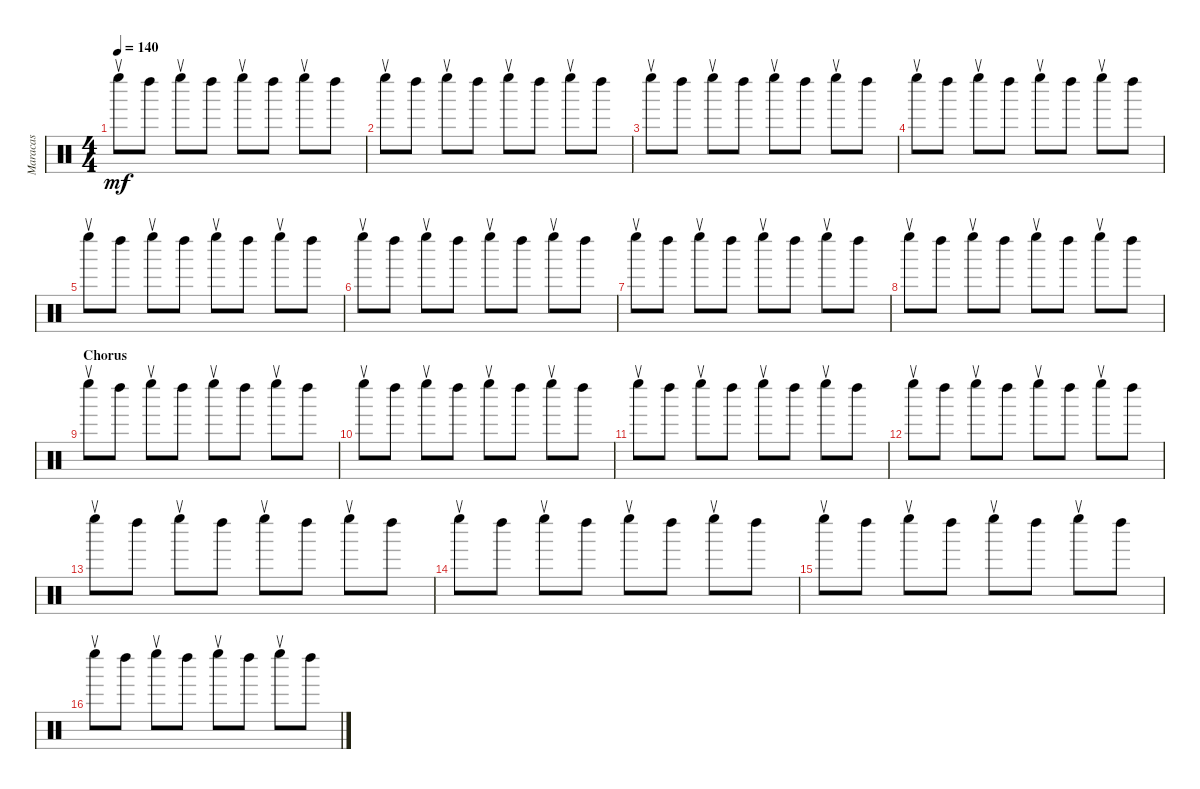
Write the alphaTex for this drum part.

\track ("Maracas" "Maracas") {instrument percussion}
\staff {score}
\articulation defaults
\ts (4 4)
\tempo 140
\clef neutral
\ks c "Left Maraca (return)".8{dy mf} "Left Maraca (hit)".8 "Left Maraca (return)".8 "Left Maraca (hit)".8 "Left Maraca (return)".8 "Left Maraca (hit)".8 "Left Maraca (return)".8 "Left Maraca (hit)".8
|
"Left Maraca (return)".8 "Left Maraca (hit)".8 "Left Maraca (return)".8 "Left Maraca (hit)".8 "Left Maraca (return)".8 "Left Maraca (hit)".8 "Left Maraca (return)".8 "Left Maraca (hit)".8 |
"Left Maraca (return)".8 "Left Maraca (hit)".8 "Left Maraca (return)".8 "Left Maraca (hit)".8 "Left Maraca (return)".8 "Left Maraca (hit)".8 "Left Maraca (return)".8 "Left Maraca (hit)".8 |
"Left Maraca (return)".8 "Left Maraca (hit)".8 "Left Maraca (return)".8 "Left Maraca (hit)".8 "Left Maraca (return)".8 "Left Maraca (hit)".8 "Left Maraca (return)".8 "Left Maraca (hit)".8 |
"Left Maraca (return)".8 "Left Maraca (hit)".8 "Left Maraca (return)".8 "Left Maraca (hit)".8 "Left Maraca (return)".8 "Left Maraca (hit)".8 "Left Maraca (return)".8 "Left Maraca (hit)".8 |
"Left Maraca (return)".8 "Left Maraca (hit)".8 "Left Maraca (return)".8 "Left Maraca (hit)".8 "Left Maraca (return)".8 "Left Maraca (hit)".8 "Left Maraca (return)".8 "Left Maraca (hit)".8 |
"Left Maraca (return)".8 "Left Maraca (hit)".8 "Left Maraca (return)".8 "Left Maraca (hit)".8 "Left Maraca (return)".8 "Left Maraca (hit)".8 "Left Maraca (return)".8 "Left Maraca (hit)".8 |
"Left Maraca (return)".8 "Left Maraca (hit)".8 "Left Maraca (return)".8 "Left Maraca (hit)".8 "Left Maraca (return)".8 "Left Maraca (hit)".8 "Left Maraca (return)".8 "Left Maraca (hit)".8 |
\section ("" "Chorus")
"Left Maraca (return)".8 "Left Maraca (hit)".8 "Left Maraca (return)".8 "Left Maraca (hit)".8 "Left Maraca (return)".8 "Left Maraca (hit)".8 "Left Maraca (return)".8 "Left Maraca (hit)".8 |
"Left Maraca (return)".8 "Left Maraca (hit)".8 "Left Maraca (return)".8 "Left Maraca (hit)".8 "Left Maraca (return)".8 "Left Maraca (hit)".8 "Left Maraca (return)".8 "Left Maraca (hit)".8 |
"Left Maraca (return)".8 "Left Maraca (hit)".8 "Left Maraca (return)".8 "Left Maraca (hit)".8 "Left Maraca (return)".8 "Left Maraca (hit)".8 "Left Maraca (return)".8 "Left Maraca (hit)".8 |
"Left Maraca (return)".8 "Left Maraca (hit)".8 "Left Maraca (return)".8 "Left Maraca (hit)".8 "Left Maraca (return)".8 "Left Maraca (hit)".8 "Left Maraca (return)".8 "Left Maraca (hit)".8 |
"Left Maraca (return)".8 "Left Maraca (hit)".8 "Left Maraca (return)".8 "Left Maraca (hit)".8 "Left Maraca (return)".8 "Left Maraca (hit)".8 "Left Maraca (return)".8 "Left Maraca (hit)".8 |
"Left Maraca (return)".8 "Left Maraca (hit)".8 "Left Maraca (return)".8 "Left Maraca (hit)".8 "Left Maraca (return)".8 "Left Maraca (hit)".8 "Left Maraca (return)".8 "Left Maraca (hit)".8 |
"Left Maraca (return)".8 "Left Maraca (hit)".8 "Left Maraca (return)".8 "Left Maraca (hit)".8 "Left Maraca (return)".8 "Left Maraca (hit)".8 "Left Maraca (return)".8 "Left Maraca (hit)".8 |
"Left Maraca (return)".8 "Left Maraca (hit)".8 "Left Maraca (return)".8 "Left Maraca (hit)".8 "Left Maraca (return)".8 "Left Maraca (hit)".8 "Left Maraca (return)".8 "Left Maraca (hit)".8
